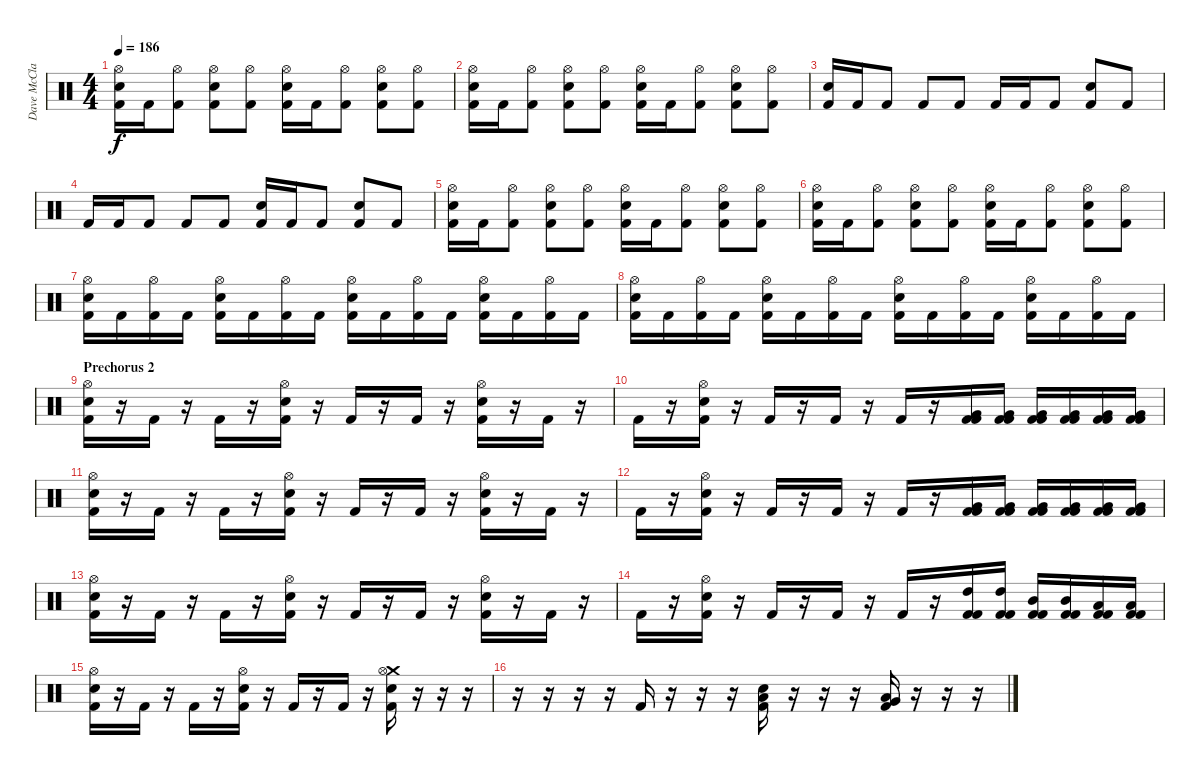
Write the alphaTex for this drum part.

\track ("Dave McClain" "Dave McCla") {instrument percussion}
\staff {score}
\articulation defaults
\ts (4 4)
\tempo 186
\clef neutral
\ks c
("Hi-Hat (open)" "Snare (hit) 2" "Kick (hit) 2").16{dy f} "Kick (hit) 2".16 ("Hi-Hat (open)" "Kick (hit) 2").8 ("Hi-Hat (open)" "Snare (hit) 2" "Kick (hit) 2").8 ("Hi-Hat (open)" "Kick (hit) 2").8 ("Hi-Hat (open)" "Snare (hit) 2" "Kick (hit) 2").16 "Kick (hit) 2".16 ("Hi-Hat (open)" "Kick (hit) 2").8 ("Hi-Hat (open)" "Snare (hit) 2" "Kick (hit) 2").8 ("Hi-Hat (open)" "Kick (hit) 2").8 |
("Hi-Hat (open)" "Snare (hit) 2" "Kick (hit) 2").16 "Kick (hit) 2".16 ("Hi-Hat (open)" "Kick (hit) 2").8 ("Hi-Hat (open)" "Snare (hit) 2" "Kick (hit) 2").8 ("Hi-Hat (open)" "Kick (hit) 2").8 ("Hi-Hat (open)" "Snare (hit) 2" "Kick (hit) 2").16 "Kick (hit) 2".16 ("Hi-Hat (open)" "Kick (hit) 2").8 ("Hi-Hat (open)" "Snare (hit) 2" "Kick (hit) 2").8 ("Hi-Hat (open)" "Kick (hit) 2").8 |
("Snare (hit) 2" "Kick (hit) 2").16 "Kick (hit) 2".16 "Kick (hit) 2".8 "Kick (hit) 2".8 "Kick (hit) 2".8 "Kick (hit) 2".16 "Kick (hit) 2".16 "Kick (hit) 2".8 ("Snare (hit) 2" "Kick (hit) 2").8 "Kick (hit) 2".8 |
"Kick (hit) 2".16 "Kick (hit) 2".16 "Kick (hit) 2".8 "Kick (hit) 2".8 "Kick (hit) 2".8 ("Snare (hit) 2" "Kick (hit) 2").16 "Kick (hit) 2".16 "Kick (hit) 2".8 ("Snare (hit) 2" "Kick (hit) 2").8 "Kick (hit) 2".8 |
("Hi-Hat (open)" "Snare (hit) 2" "Kick (hit) 2").16 "Kick (hit) 2".16 ("Hi-Hat (open)" "Kick (hit) 2").8 ("Hi-Hat (open)" "Snare (hit) 2" "Kick (hit) 2").8 ("Hi-Hat (open)" "Kick (hit) 2").8 ("Hi-Hat (open)" "Snare (hit) 2" "Kick (hit) 2").16 "Kick (hit) 2".16 ("Hi-Hat (open)" "Kick (hit) 2").8 ("Hi-Hat (open)" "Snare (hit) 2" "Kick (hit) 2").8 ("Hi-Hat (open)" "Kick (hit) 2").8 |
("Hi-Hat (open)" "Snare (hit) 2" "Kick (hit) 2").16 "Kick (hit) 2".16 ("Hi-Hat (open)" "Kick (hit) 2").8 ("Hi-Hat (open)" "Snare (hit) 2" "Kick (hit) 2").8 ("Hi-Hat (open)" "Kick (hit) 2").8 ("Hi-Hat (open)" "Snare (hit) 2" "Kick (hit) 2").16 "Kick (hit) 2".16 ("Hi-Hat (open)" "Kick (hit) 2").8 ("Hi-Hat (open)" "Snare (hit) 2" "Kick (hit) 2").8 ("Hi-Hat (open)" "Kick (hit) 2").8 |
("Hi-Hat (open)" "Snare (hit) 2" "Kick (hit) 2").16 "Kick (hit) 2".16 ("Hi-Hat (open)" "Kick (hit) 2").16 "Kick (hit) 2".16 ("Hi-Hat (open)" "Snare (hit) 2" "Kick (hit) 2").16 "Kick (hit) 2".16 ("Hi-Hat (open)" "Kick (hit) 2").16 "Kick (hit) 2".16 ("Hi-Hat (open)" "Snare (hit) 2" "Kick (hit) 2").16 "Kick (hit) 2".16 ("Hi-Hat (open)" "Kick (hit) 2").16 "Kick (hit) 2".16 ("Hi-Hat (open)" "Snare (hit) 2" "Kick (hit) 2").16 "Kick (hit) 2".16 ("Hi-Hat (open)" "Kick (hit) 2").16 "Kick (hit) 2".16 |
("Hi-Hat (open)" "Snare (hit) 2" "Kick (hit) 2").16 "Kick (hit) 2".16 ("Hi-Hat (open)" "Kick (hit) 2").16 "Kick (hit) 2".16 ("Hi-Hat (open)" "Snare (hit) 2" "Kick (hit) 2").16 "Kick (hit) 2".16 ("Hi-Hat (open)" "Kick (hit) 2").16 "Kick (hit) 2".16 ("Hi-Hat (open)" "Snare (hit) 2" "Kick (hit) 2").16 "Kick (hit) 2".16 ("Hi-Hat (open)" "Kick (hit) 2").16 "Kick (hit) 2".16 ("Hi-Hat (open)" "Snare (hit) 2" "Kick (hit) 2").16 "Kick (hit) 2".16 ("Hi-Hat (open)" "Kick (hit) 2").16 "Kick (hit) 2".16 |
\section ("" "Prechorus 2")
("Hi-Hat (open)" "Snare (hit) 2" "Kick (hit) 2").16 r.16 "Kick (hit) 2".16 r.16 "Kick (hit) 2".16 r.16 ("Hi-Hat (open)" "Snare (hit) 2" "Kick (hit) 2").16 r.16 "Kick (hit) 2".16 r.16 "Kick (hit) 2".16 r.16 ("Hi-Hat (open)" "Snare (hit) 2" "Kick (hit) 2").16 r.16 "Kick (hit) 2".16 r.16 |
"Kick (hit) 2".16 r.16 ("Hi-Hat (open)" "Snare (hit) 2" "Kick (hit) 2").16 r.16 "Kick (hit) 2".16 r.16 "Kick (hit) 2".16 r.16 "Kick (hit) 2".16 r.16 ("Very Low Tom (hit)" "Kick (hit) 2" "Kick (hit) 2").16 ("Very Low Tom (hit)" "Kick (hit) 2" "Kick (hit) 2").16 ("Very Low Tom (hit)" "Kick (hit) 2" "Kick (hit) 2").16 ("Very Low Tom (hit)" "Kick (hit) 2" "Kick (hit) 2").16 ("Very Low Tom (hit)" "Kick (hit) 2" "Kick (hit) 2").16 ("Very Low Tom (hit)" "Kick (hit) 2" "Kick (hit) 2").16 |
("Hi-Hat (open)" "Snare (hit) 2" "Kick (hit) 2").16 r.16 "Kick (hit) 2".16 r.16 "Kick (hit) 2".16 r.16 ("Hi-Hat (open)" "Snare (hit) 2" "Kick (hit) 2").16 r.16 "Kick (hit) 2".16 r.16 "Kick (hit) 2".16 r.16 ("Hi-Hat (open)" "Snare (hit) 2" "Kick (hit) 2").16 r.16 "Kick (hit) 2".16 r.16 |
"Kick (hit) 2".16 r.16 ("Hi-Hat (open)" "Snare (hit) 2" "Kick (hit) 2").16 r.16 "Kick (hit) 2".16 r.16 "Kick (hit) 2".16 r.16 "Kick (hit) 2".16 r.16 ("Very Low Tom (hit)" "Kick (hit) 2" "Kick (hit) 2").16 ("Very Low Tom (hit)" "Kick (hit) 2" "Kick (hit) 2").16 ("Very Low Tom (hit)" "Kick (hit) 2" "Kick (hit) 2").16 ("Very Low Tom (hit)" "Kick (hit) 2" "Kick (hit) 2").16 ("Very Low Tom (hit)" "Kick (hit) 2" "Kick (hit) 2").16 ("Very Low Tom (hit)" "Kick (hit) 2" "Kick (hit) 2").16 |
("Hi-Hat (open)" "Snare (hit) 2" "Kick (hit) 2").16 r.16 "Kick (hit) 2".16 r.16 "Kick (hit) 2".16 r.16 ("Hi-Hat (open)" "Snare (hit) 2" "Kick (hit) 2").16 r.16 "Kick (hit) 2".16 r.16 "Kick (hit) 2".16 r.16 ("Hi-Hat (open)" "Snare (hit) 2" "Kick (hit) 2").16 r.16 "Kick (hit) 2".16 r.16 |
"Kick (hit) 2".16 r.16 ("Hi-Hat (open)" "Snare (hit) 2" "Kick (hit) 2").16 r.16 "Kick (hit) 2".16 r.16 "Kick (hit) 2".16 r.16 "Kick (hit) 2".16 r.16 ("High Tom (hit)" "Kick (hit) 2" "Kick (hit) 2").16 ("High Tom (hit)" "Kick (hit) 2" "Kick (hit) 2").16 ("Mid Tom (hit)" "Kick (hit) 2" "Kick (hit) 2").16 ("Mid Tom (hit)" "Kick (hit) 2" "Kick (hit) 2").16 ("Low Tom (hit)" "Kick (hit) 2" "Kick (hit) 2").16 ("Low Tom (hit)" "Kick (hit) 2" "Kick (hit) 2").16 |
("Hi-Hat (open)" "Snare (hit) 2" "Kick (hit) 2").16 r.16 "Kick (hit) 2".16 r.16 "Kick (hit) 2".16 r.16 ("Hi-Hat (open)" "Snare (hit) 2" "Kick (hit) 2").16 r.16 "Kick (hit) 2".16 r.16 "Kick (hit) 2".16 r.16 ("Crash medium (hit)" "Hi-Hat (open)" "Snare (hit) 2" "Kick (hit) 2").16 r.16 r.16 r.16 |
r.16 r.16 r.16 r.16 "Kick (hit) 2".16 r.16 r.16 r.16 ("Low Tom (hit)" "Snare (hit) 2" "Kick (hit) 2").16 r.16 r.16 r.16 ("Very Low Tom (hit)" "Low Tom (hit)" "Kick (hit) 2").16 r.16 r.16 r.16
